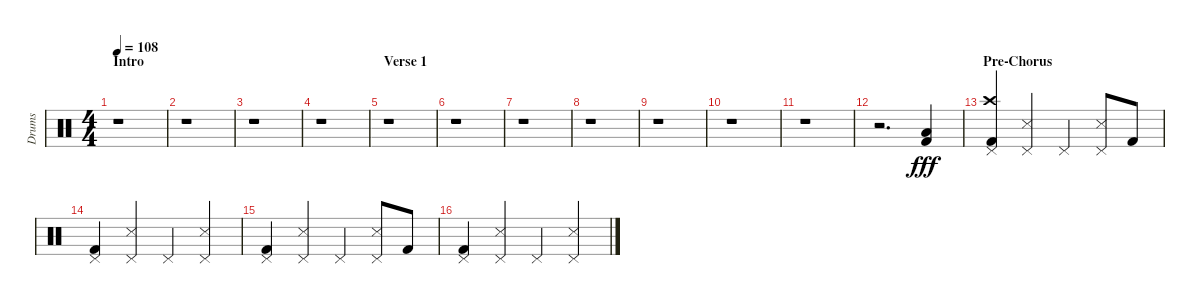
\track ("Drums" "Drums") {instrument percussion}
\staff {score}
\articulation defaults
\ts (4 4)
\section ("" "Intro")
\tempo 108
\clef neutral
\ks c
r.1{dy fff} |
r.1 |
r.1 |
r.1 |
\section ("" "Verse 1")
r.1 |
r.1 |
r.1 |
r.1 |
r.1 |
r.1 |
r.1 |
r.2{d} ("Low Tom (hit)" "Kick (hit) 2").4 |
\section ("" "Pre-Chorus")
("Crash high (hit)" "Pedal Hi-Hat (hit)" "Kick (hit) 2").4 ("Pedal Hi-Hat (hit)" "Snare (side stick) 3").4 "Pedal Hi-Hat (hit)".4 ("Pedal Hi-Hat (hit)" "Snare (side stick) 3").8 "Kick (hit) 2".8 |
("Pedal Hi-Hat (hit)" "Kick (hit) 2").4 ("Pedal Hi-Hat (hit)" "Snare (side stick) 3").4 "Pedal Hi-Hat (hit)".4 ("Pedal Hi-Hat (hit)" "Snare (side stick) 3").4 |
("Pedal Hi-Hat (hit)" "Kick (hit) 2").4 ("Pedal Hi-Hat (hit)" "Snare (side stick) 3").4 "Pedal Hi-Hat (hit)".4 ("Pedal Hi-Hat (hit)" "Snare (side stick) 3").8 "Kick (hit) 2".8 |
("Pedal Hi-Hat (hit)" "Kick (hit) 2").4 ("Pedal Hi-Hat (hit)" "Snare (side stick) 3").4 "Pedal Hi-Hat (hit)".4 ("Pedal Hi-Hat (hit)" "Snare (side stick) 3").4
